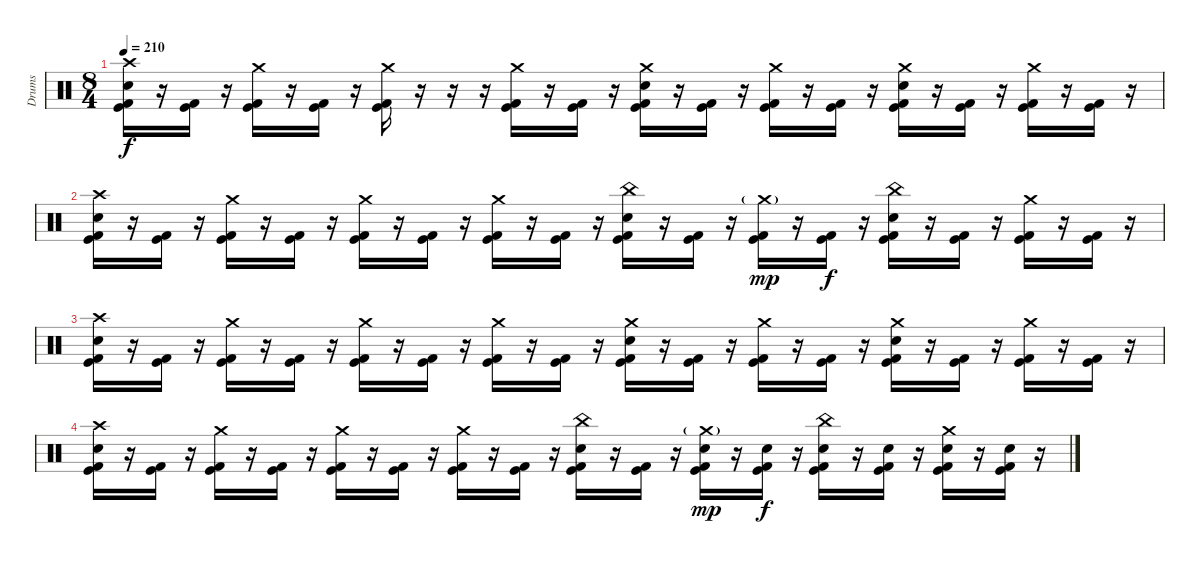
\track ("Drums" "Drums") {instrument percussion}
\staff {score}
\articulation defaults
\ts (8 4)
\tempo 210
\clef neutral
\ks c
("Crash high (hit)" "Electric Snare (hit)" "Kick (hit)" "Kick (hit) 2").16{dy f} r.16 ("Kick (hit)" "Kick (hit) 2").16 r.16 ("Crash medium (hit)" "Kick (hit)" "Kick (hit) 2").16 r.16 ("Kick (hit)" "Kick (hit) 2").16 r.16 ("Crash medium (hit)" "Kick (hit)" "Kick (hit) 2").16 r.16 r.16 r.16 ("Crash medium (hit)" "Kick (hit)" "Kick (hit) 2").16 r.16 ("Kick (hit)" "Kick (hit) 2").16 r.16 ("Crash medium (hit)" "Electric Snare (hit)" "Kick (hit)" "Kick (hit) 2").16 r.16 ("Kick (hit)" "Kick (hit) 2").16 r.16 ("Crash medium (hit)" "Kick (hit)" "Kick (hit) 2").16 r.16 ("Kick (hit)" "Kick (hit) 2").16 r.16 ("Crash medium (hit)" "Electric Snare (hit)" "Kick (hit)" "Kick (hit) 2").16 r.16 ("Kick (hit)" "Kick (hit) 2").16 r.16 ("Crash medium (hit)" "Kick (hit)" "Kick (hit) 2").16 r.16 ("Kick (hit)" "Kick (hit) 2").16 r.16 |
("Crash high (hit)" "Electric Snare (hit)" "Kick (hit)" "Kick (hit) 2").16 r.16 ("Kick (hit)" "Kick (hit) 2").16 r.16 ("Crash medium (hit)" "Kick (hit)" "Kick (hit) 2").16 r.16 ("Kick (hit)" "Kick (hit) 2").16 r.16 ("Crash medium (hit)" "Kick (hit)" "Kick (hit) 2").16 r.16 ("Kick (hit)" "Kick (hit) 2").16 r.16 ("Crash medium (hit)" "Kick (hit)" "Kick (hit) 2").16 r.16 ("Kick (hit)" "Kick (hit) 2").16 r.16 ("China (hit)" "Electric Snare (hit)" "Kick (hit)" "Kick (hit) 2").16 r.16 ("Kick (hit)" "Kick (hit) 2").16 r.16 ("Crash medium (hit)"{g} "Kick (hit)" "Kick (hit) 2").16{dy mp} r.16 ("Kick (hit)" "Kick (hit) 2").16{dy f} r.16 ("China (hit)" "Electric Snare (hit)" "Kick (hit)" "Kick (hit) 2").16 r.16 ("Kick (hit)" "Kick (hit) 2").16 r.16 ("Crash medium (hit)" "Kick (hit)" "Kick (hit) 2").16 r.16 ("Kick (hit)" "Kick (hit) 2").16 r.16 |
("Crash high (hit)" "Electric Snare (hit)" "Kick (hit)" "Kick (hit) 2").16 r.16 ("Kick (hit)" "Kick (hit) 2").16 r.16 ("Crash medium (hit)" "Kick (hit)" "Kick (hit) 2").16 r.16 ("Kick (hit)" "Kick (hit) 2").16 r.16 ("Crash medium (hit)" "Kick (hit)" "Kick (hit) 2").16 r.16 ("Kick (hit)" "Kick (hit) 2").16 r.16 ("Crash medium (hit)" "Kick (hit)" "Kick (hit) 2").16 r.16 ("Kick (hit)" "Kick (hit) 2").16 r.16 ("Crash medium (hit)" "Electric Snare (hit)" "Kick (hit)" "Kick (hit) 2").16 r.16 ("Kick (hit)" "Kick (hit) 2").16 r.16 ("Crash medium (hit)" "Kick (hit)" "Kick (hit) 2").16 r.16 ("Kick (hit)" "Kick (hit) 2").16 r.16 ("Crash medium (hit)" "Electric Snare (hit)" "Kick (hit)" "Kick (hit) 2").16 r.16 ("Kick (hit)" "Kick (hit) 2").16 r.16 ("Crash medium (hit)" "Kick (hit)" "Kick (hit) 2").16 r.16 ("Kick (hit)" "Kick (hit) 2").16 r.16 |
("Crash high (hit)" "Electric Snare (hit)" "Kick (hit)" "Kick (hit) 2").16 r.16 ("Kick (hit)" "Kick (hit) 2").16 r.16 ("Crash medium (hit)" "Kick (hit)" "Kick (hit) 2").16 r.16 ("Kick (hit)" "Kick (hit) 2").16 r.16 ("Crash medium (hit)" "Kick (hit)" "Kick (hit) 2").16 r.16 ("Kick (hit)" "Kick (hit) 2").16 r.16 ("Crash medium (hit)" "Kick (hit)" "Kick (hit) 2").16 r.16 ("Kick (hit)" "Kick (hit) 2").16 r.16 ("China (hit)" "Electric Snare (hit)" "Kick (hit)" "Kick (hit) 2").16 r.16 ("Kick (hit)" "Kick (hit) 2").16 r.16 ("Crash medium (hit)"{g} "Electric Snare (hit)" "Kick (hit)" "Kick (hit) 2").16{dy mp} r.16 ("Electric Snare (hit)" "Kick (hit)" "Kick (hit) 2").16{dy f} r.16 ("China (hit)" "Electric Snare (hit)" "Kick (hit)" "Kick (hit) 2").16 r.16 ("Electric Snare (hit)" "Kick (hit)" "Kick (hit) 2").16 r.16 ("Crash medium (hit)" "Electric Snare (hit)" "Kick (hit)" "Kick (hit) 2").16 r.16 ("Electric Snare (hit)" "Kick (hit)" "Kick (hit) 2").16 r.16
